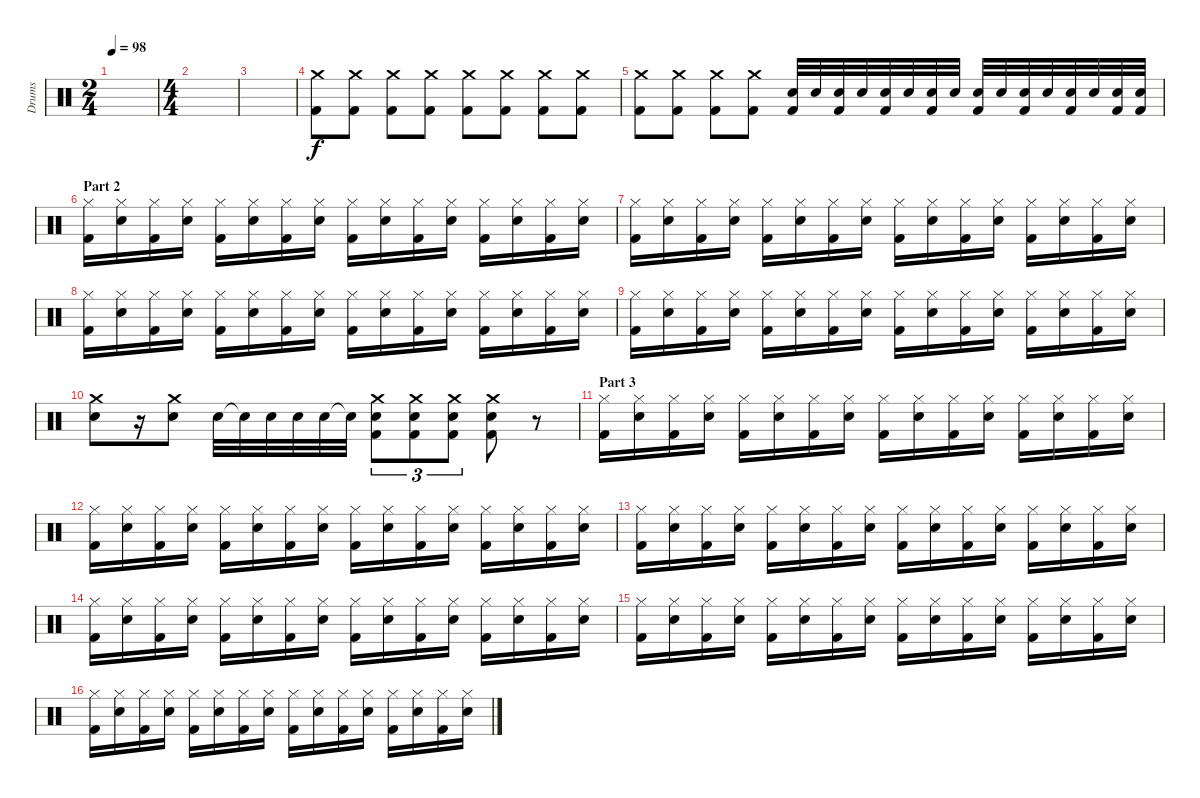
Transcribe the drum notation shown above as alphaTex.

\track ("Drums" "Drums") {instrument percussion}
\staff {score}
\articulation defaults
\ts (2 4)
\tempo 98
\clef neutral
\ks c
|
\ts (4 4)
|
|
("Crash medium (hit)" "Kick (hit) 2").8 ("Crash medium (hit)" "Kick (hit) 2").8 ("Crash medium (hit)" "Kick (hit) 2").8 ("Crash medium (hit)" "Kick (hit) 2").8 ("Crash medium (hit)" "Kick (hit) 2").8 ("Crash medium (hit)" "Kick (hit) 2").8 ("Crash medium (hit)" "Kick (hit) 2").8 ("Crash medium (hit)" "Kick (hit) 2").8 |
("Crash medium (hit)" "Kick (hit) 2").8 ("Crash medium (hit)" "Kick (hit) 2").8 ("Crash medium (hit)" "Kick (hit) 2").8 ("Crash medium (hit)" "Kick (hit) 2").8 ("Electric Snare (hit)" "Kick (hit) 2").32 "Electric Snare (hit)".32 ("Electric Snare (hit)" "Kick (hit) 2").32 "Electric Snare (hit)".32 ("Electric Snare (hit)" "Kick (hit) 2").32 "Electric Snare (hit)".32 ("Electric Snare (hit)" "Kick (hit) 2").32 "Electric Snare (hit)".32 ("Electric Snare (hit)" "Kick (hit) 2").32 "Electric Snare (hit)".32 ("Electric Snare (hit)" "Kick (hit) 2").32 "Electric Snare (hit)".32 ("Electric Snare (hit)" "Kick (hit) 2").32 "Electric Snare (hit)".32 ("Electric Snare (hit)" "Kick (hit) 2").32 ("Electric Snare (hit)" "Kick (hit) 2").32 |
\section ("" "Part 2")
("Hi-Hat (closed)" "Kick (hit) 2").16 ("Hi-Hat (closed)" "Electric Snare (hit)").16 ("Hi-Hat (closed)" "Kick (hit) 2").16 ("Hi-Hat (closed)" "Electric Snare (hit)").16 ("Hi-Hat (closed)" "Kick (hit) 2").16 ("Hi-Hat (closed)" "Electric Snare (hit)").16 ("Hi-Hat (closed)" "Kick (hit) 2").16 ("Hi-Hat (closed)" "Electric Snare (hit)").16 ("Hi-Hat (closed)" "Kick (hit) 2").16 ("Hi-Hat (closed)" "Electric Snare (hit)").16 ("Hi-Hat (closed)" "Kick (hit) 2").16 ("Hi-Hat (closed)" "Electric Snare (hit)").16 ("Hi-Hat (closed)" "Kick (hit) 2").16 ("Hi-Hat (closed)" "Electric Snare (hit)").16 ("Hi-Hat (closed)" "Kick (hit) 2").16 ("Hi-Hat (closed)" "Electric Snare (hit)").16 |
("Hi-Hat (closed)" "Kick (hit) 2").16 ("Hi-Hat (closed)" "Electric Snare (hit)").16 ("Hi-Hat (closed)" "Kick (hit) 2").16 ("Hi-Hat (closed)" "Electric Snare (hit)").16 ("Hi-Hat (closed)" "Kick (hit) 2").16 ("Hi-Hat (closed)" "Electric Snare (hit)").16 ("Hi-Hat (closed)" "Kick (hit) 2").16 ("Hi-Hat (closed)" "Electric Snare (hit)").16 ("Hi-Hat (closed)" "Kick (hit) 2").16 ("Hi-Hat (closed)" "Electric Snare (hit)").16 ("Hi-Hat (closed)" "Kick (hit) 2").16 ("Hi-Hat (closed)" "Electric Snare (hit)").16 ("Hi-Hat (closed)" "Kick (hit) 2").16 ("Hi-Hat (closed)" "Electric Snare (hit)").16 ("Hi-Hat (closed)" "Kick (hit) 2").16 ("Hi-Hat (closed)" "Electric Snare (hit)").16 |
("Hi-Hat (closed)" "Kick (hit) 2").16 ("Hi-Hat (closed)" "Electric Snare (hit)").16 ("Hi-Hat (closed)" "Kick (hit) 2").16 ("Hi-Hat (closed)" "Electric Snare (hit)").16 ("Hi-Hat (closed)" "Kick (hit) 2").16 ("Hi-Hat (closed)" "Electric Snare (hit)").16 ("Hi-Hat (closed)" "Kick (hit) 2").16 ("Hi-Hat (closed)" "Electric Snare (hit)").16 ("Hi-Hat (closed)" "Kick (hit) 2").16 ("Hi-Hat (closed)" "Electric Snare (hit)").16 ("Hi-Hat (closed)" "Kick (hit) 2").16 ("Hi-Hat (closed)" "Electric Snare (hit)").16 ("Hi-Hat (closed)" "Kick (hit) 2").16 ("Hi-Hat (closed)" "Electric Snare (hit)").16 ("Hi-Hat (closed)" "Kick (hit) 2").16 ("Hi-Hat (closed)" "Electric Snare (hit)").16 |
("Hi-Hat (closed)" "Kick (hit) 2").16 ("Hi-Hat (closed)" "Electric Snare (hit)").16 ("Hi-Hat (closed)" "Kick (hit) 2").16 ("Hi-Hat (closed)" "Electric Snare (hit)").16 ("Hi-Hat (closed)" "Kick (hit) 2").16 ("Hi-Hat (closed)" "Electric Snare (hit)").16 ("Hi-Hat (closed)" "Kick (hit) 2").16 ("Hi-Hat (closed)" "Electric Snare (hit)").16 ("Hi-Hat (closed)" "Kick (hit) 2").16 ("Hi-Hat (closed)" "Electric Snare (hit)").16 ("Hi-Hat (closed)" "Kick (hit) 2").16 ("Hi-Hat (closed)" "Electric Snare (hit)").16 ("Hi-Hat (closed)" "Kick (hit) 2").16 ("Hi-Hat (closed)" "Electric Snare (hit)").16 ("Hi-Hat (closed)" "Kick (hit) 2").16 ("Hi-Hat (closed)" "Electric Snare (hit)").16 |
("Crash medium (hit)" "Electric Snare (hit)").8 r.16 ("Crash medium (hit)" "Electric Snare (hit)").8 "Electric Snare (hit)".32 "Electric Snare (hit)"{t}.32 "Electric Snare (hit)".32 "Electric Snare (hit)".32 "Electric Snare (hit)".32 "Electric Snare (hit)"{t}.32 ("Crash medium (hit)" "Electric Snare (hit)" "Kick (hit) 2").8{tu (3 2)} ("Crash medium (hit)" "Electric Snare (hit)" "Kick (hit) 2").8{tu (3 2)} ("Crash medium (hit)" "Electric Snare (hit)" "Kick (hit) 2").8{tu (3 2)} ("Crash medium (hit)" "Electric Snare (hit)" "Kick (hit) 2").8 r.8 |
\section ("" "Part 3")
("Hi-Hat (closed)" "Kick (hit) 2").16 ("Hi-Hat (closed)" "Electric Snare (hit)").16 ("Hi-Hat (closed)" "Kick (hit) 2").16 ("Hi-Hat (closed)" "Electric Snare (hit)").16 ("Hi-Hat (closed)" "Kick (hit) 2").16 ("Hi-Hat (closed)" "Electric Snare (hit)").16 ("Hi-Hat (closed)" "Kick (hit) 2").16 ("Hi-Hat (closed)" "Electric Snare (hit)").16 ("Hi-Hat (closed)" "Kick (hit) 2").16 ("Hi-Hat (closed)" "Electric Snare (hit)").16 ("Hi-Hat (closed)" "Kick (hit) 2").16 ("Hi-Hat (closed)" "Electric Snare (hit)").16 ("Hi-Hat (closed)" "Kick (hit) 2").16 ("Hi-Hat (closed)" "Electric Snare (hit)").16 ("Hi-Hat (closed)" "Kick (hit) 2").16 ("Hi-Hat (closed)" "Electric Snare (hit)").16 |
("Hi-Hat (closed)" "Kick (hit) 2").16 ("Hi-Hat (closed)" "Electric Snare (hit)").16 ("Hi-Hat (closed)" "Kick (hit) 2").16 ("Hi-Hat (closed)" "Electric Snare (hit)").16 ("Hi-Hat (closed)" "Kick (hit) 2").16 ("Hi-Hat (closed)" "Electric Snare (hit)").16 ("Hi-Hat (closed)" "Kick (hit) 2").16 ("Hi-Hat (closed)" "Electric Snare (hit)").16 ("Hi-Hat (closed)" "Kick (hit) 2").16 ("Hi-Hat (closed)" "Electric Snare (hit)").16 ("Hi-Hat (closed)" "Kick (hit) 2").16 ("Hi-Hat (closed)" "Electric Snare (hit)").16 ("Hi-Hat (closed)" "Kick (hit) 2").16 ("Hi-Hat (closed)" "Electric Snare (hit)").16 ("Hi-Hat (closed)" "Kick (hit) 2").16 ("Hi-Hat (closed)" "Electric Snare (hit)").16 |
("Hi-Hat (closed)" "Kick (hit) 2").16 ("Hi-Hat (closed)" "Electric Snare (hit)").16 ("Hi-Hat (closed)" "Kick (hit) 2").16 ("Hi-Hat (closed)" "Electric Snare (hit)").16 ("Hi-Hat (closed)" "Kick (hit) 2").16 ("Hi-Hat (closed)" "Electric Snare (hit)").16 ("Hi-Hat (closed)" "Kick (hit) 2").16 ("Hi-Hat (closed)" "Electric Snare (hit)").16 ("Hi-Hat (closed)" "Kick (hit) 2").16 ("Hi-Hat (closed)" "Electric Snare (hit)").16 ("Hi-Hat (closed)" "Kick (hit) 2").16 ("Hi-Hat (closed)" "Electric Snare (hit)").16 ("Hi-Hat (closed)" "Kick (hit) 2").16 ("Hi-Hat (closed)" "Electric Snare (hit)").16 ("Hi-Hat (closed)" "Kick (hit) 2").16 ("Hi-Hat (closed)" "Electric Snare (hit)").16 |
("Hi-Hat (closed)" "Kick (hit) 2").16 ("Hi-Hat (closed)" "Electric Snare (hit)").16 ("Hi-Hat (closed)" "Kick (hit) 2").16 ("Hi-Hat (closed)" "Electric Snare (hit)").16 ("Hi-Hat (closed)" "Kick (hit) 2").16 ("Hi-Hat (closed)" "Electric Snare (hit)").16 ("Hi-Hat (closed)" "Kick (hit) 2").16 ("Hi-Hat (closed)" "Electric Snare (hit)").16 ("Hi-Hat (closed)" "Kick (hit) 2").16 ("Hi-Hat (closed)" "Electric Snare (hit)").16 ("Hi-Hat (closed)" "Kick (hit) 2").16 ("Hi-Hat (closed)" "Electric Snare (hit)").16 ("Hi-Hat (closed)" "Kick (hit) 2").16 ("Hi-Hat (closed)" "Electric Snare (hit)").16 ("Hi-Hat (closed)" "Kick (hit) 2").16 ("Hi-Hat (closed)" "Electric Snare (hit)").16 |
("Hi-Hat (closed)" "Kick (hit) 2").16 ("Hi-Hat (closed)" "Electric Snare (hit)").16 ("Hi-Hat (closed)" "Kick (hit) 2").16 ("Hi-Hat (closed)" "Electric Snare (hit)").16 ("Hi-Hat (closed)" "Kick (hit) 2").16 ("Hi-Hat (closed)" "Electric Snare (hit)").16 ("Hi-Hat (closed)" "Kick (hit) 2").16 ("Hi-Hat (closed)" "Electric Snare (hit)").16 ("Hi-Hat (closed)" "Kick (hit) 2").16 ("Hi-Hat (closed)" "Electric Snare (hit)").16 ("Hi-Hat (closed)" "Kick (hit) 2").16 ("Hi-Hat (closed)" "Electric Snare (hit)").16 ("Hi-Hat (closed)" "Kick (hit) 2").16 ("Hi-Hat (closed)" "Electric Snare (hit)").16 ("Hi-Hat (closed)" "Kick (hit) 2").16 ("Hi-Hat (closed)" "Electric Snare (hit)").16 |
("Hi-Hat (closed)" "Kick (hit) 2").16 ("Hi-Hat (closed)" "Electric Snare (hit)").16 ("Hi-Hat (closed)" "Kick (hit) 2").16 ("Hi-Hat (closed)" "Electric Snare (hit)").16 ("Hi-Hat (closed)" "Kick (hit) 2").16 ("Hi-Hat (closed)" "Electric Snare (hit)").16 ("Hi-Hat (closed)" "Kick (hit) 2").16 ("Hi-Hat (closed)" "Electric Snare (hit)").16 ("Hi-Hat (closed)" "Kick (hit) 2").16 ("Hi-Hat (closed)" "Electric Snare (hit)").16 ("Hi-Hat (closed)" "Kick (hit) 2").16 ("Hi-Hat (closed)" "Electric Snare (hit)").16 ("Hi-Hat (closed)" "Kick (hit) 2").16 ("Hi-Hat (closed)" "Electric Snare (hit)").16 ("Hi-Hat (closed)" "Kick (hit) 2").16 ("Hi-Hat (closed)" "Electric Snare (hit)").16
